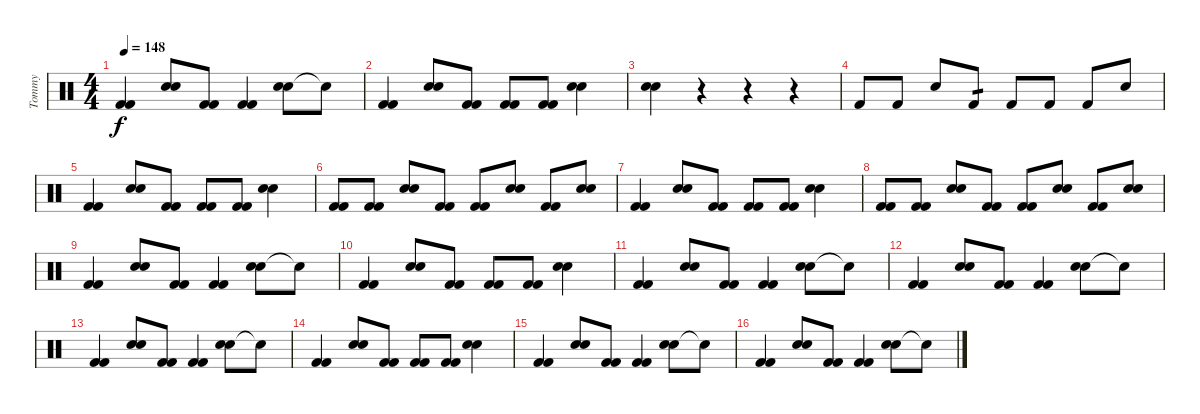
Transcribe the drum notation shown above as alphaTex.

\track ("Tommy" "Tommy") {instrument percussion}
\staff {score}
\articulation defaults
\ts (4 4)
\tempo 148
\clef neutral
\ks c
("Kick (hit) 2" "Kick (hit) 2").4{dy f} ("Snare (hit) 2" "Snare (hit) 2").8 ("Kick (hit) 2" "Kick (hit) 2").8 ("Kick (hit) 2" "Kick (hit) 2").4 ("Snare (hit) 2" "Snare (hit) 2").8 "Snare (hit)"{t}.8 |
("Kick (hit) 2" "Kick (hit) 2").4 ("Snare (hit) 2" "Snare (hit) 2").8 ("Kick (hit) 2" "Kick (hit) 2").8 ("Kick (hit) 2" "Kick (hit) 2").8 ("Kick (hit) 2" "Kick (hit) 2").8 ("Snare (hit) 2" "Snare (hit) 2").4 |
("Snare (hit) 2" "Snare (hit) 2").4 r.4 r.4 r.4 |
"Kick (hit) 2".8 "Kick (hit) 2".8 "Snare (hit) 2".8 "Kick (hit) 2".8{tp 1} "Kick (hit) 2".8 "Kick (hit) 2".8 "Kick (hit) 2".8 "Snare (hit) 2".8 |
("Kick (hit) 2" "Kick (hit) 2").4 ("Snare (hit) 2" "Snare (hit) 2").8 ("Kick (hit) 2" "Kick (hit) 2").8 ("Kick (hit) 2" "Kick (hit) 2").8 ("Kick (hit) 2" "Kick (hit) 2").8 ("Snare (hit) 2" "Snare (hit) 2").4 |
("Kick (hit) 2" "Kick (hit) 2").8 ("Kick (hit) 2" "Kick (hit) 2").8 ("Snare (hit) 2" "Snare (hit) 2").8 ("Kick (hit) 2" "Kick (hit) 2").8 ("Kick (hit) 2" "Kick (hit) 2").8 ("Snare (hit) 2" "Snare (hit) 2").8 ("Kick (hit) 2" "Kick (hit) 2").8 ("Snare (hit) 2" "Snare (hit) 2").8 |
("Kick (hit) 2" "Kick (hit) 2").4 ("Snare (hit) 2" "Snare (hit) 2").8 ("Kick (hit) 2" "Kick (hit) 2").8 ("Kick (hit) 2" "Kick (hit) 2").8 ("Kick (hit) 2" "Kick (hit) 2").8 ("Snare (hit) 2" "Snare (hit) 2").4 |
("Kick (hit) 2" "Kick (hit) 2").8 ("Kick (hit) 2" "Kick (hit) 2").8 ("Snare (hit) 2" "Snare (hit) 2").8 ("Kick (hit) 2" "Kick (hit) 2").8 ("Kick (hit) 2" "Kick (hit) 2").8 ("Snare (hit) 2" "Snare (hit) 2").8 ("Kick (hit) 2" "Kick (hit) 2").8 ("Snare (hit) 2" "Snare (hit) 2").8 |
("Kick (hit) 2" "Kick (hit) 2").4 ("Snare (hit) 2" "Snare (hit) 2").8 ("Kick (hit) 2" "Kick (hit) 2").8 ("Kick (hit) 2" "Kick (hit) 2").4 ("Snare (hit) 2" "Snare (hit) 2").8 "Snare (hit)"{t}.8 |
("Kick (hit) 2" "Kick (hit) 2").4 ("Snare (hit) 2" "Snare (hit) 2").8 ("Kick (hit) 2" "Kick (hit) 2").8 ("Kick (hit) 2" "Kick (hit) 2").8 ("Kick (hit) 2" "Kick (hit) 2").8 ("Snare (hit) 2" "Snare (hit) 2").4 |
("Kick (hit) 2" "Kick (hit) 2").4 ("Snare (hit) 2" "Snare (hit) 2").8 ("Kick (hit) 2" "Kick (hit) 2").8 ("Kick (hit) 2" "Kick (hit) 2").4 ("Snare (hit) 2" "Snare (hit) 2").8 "Snare (hit)"{t}.8 |
("Kick (hit) 2" "Kick (hit) 2").4 ("Snare (hit) 2" "Snare (hit) 2").8 ("Kick (hit) 2" "Kick (hit) 2").8 ("Kick (hit) 2" "Kick (hit) 2").4 ("Snare (hit) 2" "Snare (hit) 2").8 "Snare (hit)"{t}.8 |
("Kick (hit) 2" "Kick (hit) 2").4 ("Snare (hit) 2" "Snare (hit) 2").8 ("Kick (hit) 2" "Kick (hit) 2").8 ("Kick (hit) 2" "Kick (hit) 2").4 ("Snare (hit) 2" "Snare (hit) 2").8 "Snare (hit)"{t}.8 |
("Kick (hit) 2" "Kick (hit) 2").4 ("Snare (hit) 2" "Snare (hit) 2").8 ("Kick (hit) 2" "Kick (hit) 2").8 ("Kick (hit) 2" "Kick (hit) 2").8 ("Kick (hit) 2" "Kick (hit) 2").8 ("Snare (hit) 2" "Snare (hit) 2").4 |
("Kick (hit) 2" "Kick (hit) 2").4 ("Snare (hit) 2" "Snare (hit) 2").8 ("Kick (hit) 2" "Kick (hit) 2").8 ("Kick (hit) 2" "Kick (hit) 2").4 ("Snare (hit) 2" "Snare (hit) 2").8 "Snare (hit)"{t}.8 |
("Kick (hit) 2" "Kick (hit) 2").4 ("Snare (hit) 2" "Snare (hit) 2").8 ("Kick (hit) 2" "Kick (hit) 2").8 ("Kick (hit) 2" "Kick (hit) 2").4 ("Snare (hit) 2" "Snare (hit) 2").8 "Snare (hit)"{t}.8
